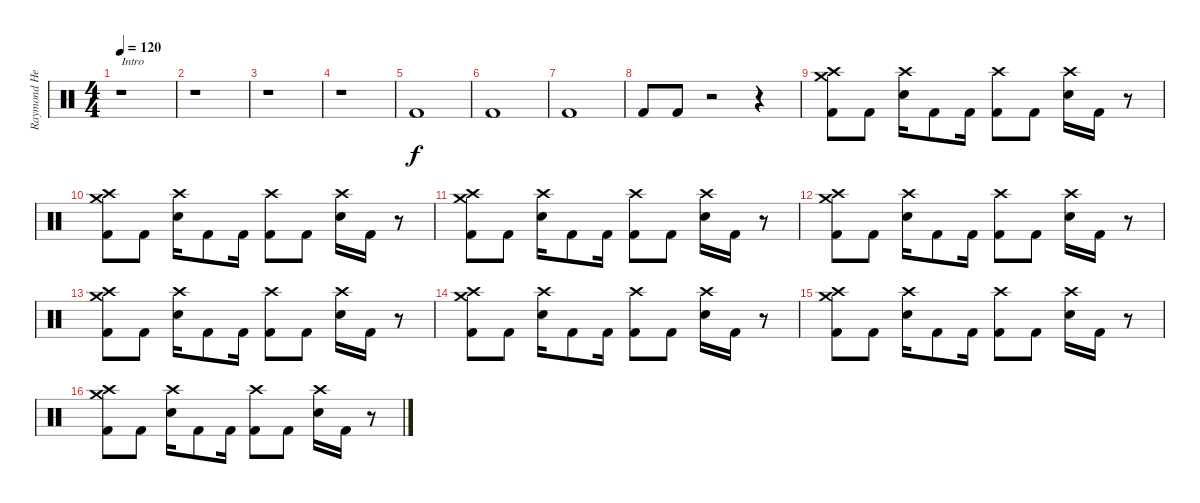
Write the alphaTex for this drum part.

\track ("Raymond Herrera" "Raymond He") {instrument percussion}
\staff {score}
\articulation defaults
\ts (4 4)
\tempo 120
\clef neutral
\ks c
r.1{txt "Intro" dy f} |
r.1 |
r.1 |
r.1 |
"Kick (hit) 2".1 |
"Kick (hit) 2".1 |
"Kick (hit) 2".1 |
"Kick (hit) 2".8 "Kick (hit) 2".8 r.2 r.4 |
("Crash medium (hit)" "Crash high (hit)" "Kick (hit) 2").8 "Kick (hit) 2".8 ("Crash high (hit)" "Electric Snare (hit)").16 "Kick (hit) 2".8 "Kick (hit) 2".16 ("Crash high (hit)" "Kick (hit) 2").8 "Kick (hit) 2".8 ("Crash high (hit)" "Electric Snare (hit)").16 "Kick (hit) 2".16 r.8 |
("Crash medium (hit)" "Crash high (hit)" "Kick (hit) 2").8 "Kick (hit) 2".8 ("Crash high (hit)" "Electric Snare (hit)").16 "Kick (hit) 2".8 "Kick (hit) 2".16 ("Crash high (hit)" "Kick (hit) 2").8 "Kick (hit) 2".8 ("Crash high (hit)" "Electric Snare (hit)").16 "Kick (hit) 2".16 r.8 |
("Crash medium (hit)" "Crash high (hit)" "Kick (hit) 2").8 "Kick (hit) 2".8 ("Crash high (hit)" "Electric Snare (hit)").16 "Kick (hit) 2".8 "Kick (hit) 2".16 ("Crash high (hit)" "Kick (hit) 2").8 "Kick (hit) 2".8 ("Crash high (hit)" "Electric Snare (hit)").16 "Kick (hit) 2".16 r.8 |
("Crash medium (hit)" "Crash high (hit)" "Kick (hit) 2").8 "Kick (hit) 2".8 ("Crash high (hit)" "Electric Snare (hit)").16 "Kick (hit) 2".8 "Kick (hit) 2".16 ("Crash high (hit)" "Kick (hit) 2").8 "Kick (hit) 2".8 ("Crash high (hit)" "Electric Snare (hit)").16 "Kick (hit) 2".16 r.8 |
("Crash medium (hit)" "Crash high (hit)" "Kick (hit) 2").8 "Kick (hit) 2".8 ("Crash high (hit)" "Electric Snare (hit)").16 "Kick (hit) 2".8 "Kick (hit) 2".16 ("Crash high (hit)" "Kick (hit) 2").8 "Kick (hit) 2".8 ("Crash high (hit)" "Electric Snare (hit)").16 "Kick (hit) 2".16 r.8 |
("Crash medium (hit)" "Crash high (hit)" "Kick (hit) 2").8 "Kick (hit) 2".8 ("Crash high (hit)" "Electric Snare (hit)").16 "Kick (hit) 2".8 "Kick (hit) 2".16 ("Crash high (hit)" "Kick (hit) 2").8 "Kick (hit) 2".8 ("Crash high (hit)" "Electric Snare (hit)").16 "Kick (hit) 2".16 r.8 |
("Crash medium (hit)" "Crash high (hit)" "Kick (hit) 2").8 "Kick (hit) 2".8 ("Crash high (hit)" "Electric Snare (hit)").16 "Kick (hit) 2".8 "Kick (hit) 2".16 ("Crash high (hit)" "Kick (hit) 2").8 "Kick (hit) 2".8 ("Crash high (hit)" "Electric Snare (hit)").16 "Kick (hit) 2".16 r.8 |
("Crash medium (hit)" "Crash high (hit)" "Kick (hit) 2").8 "Kick (hit) 2".8 ("Crash high (hit)" "Electric Snare (hit)").16 "Kick (hit) 2".8 "Kick (hit) 2".16 ("Crash high (hit)" "Kick (hit) 2").8 "Kick (hit) 2".8 ("Crash high (hit)" "Electric Snare (hit)").16 "Kick (hit) 2".16 r.8
